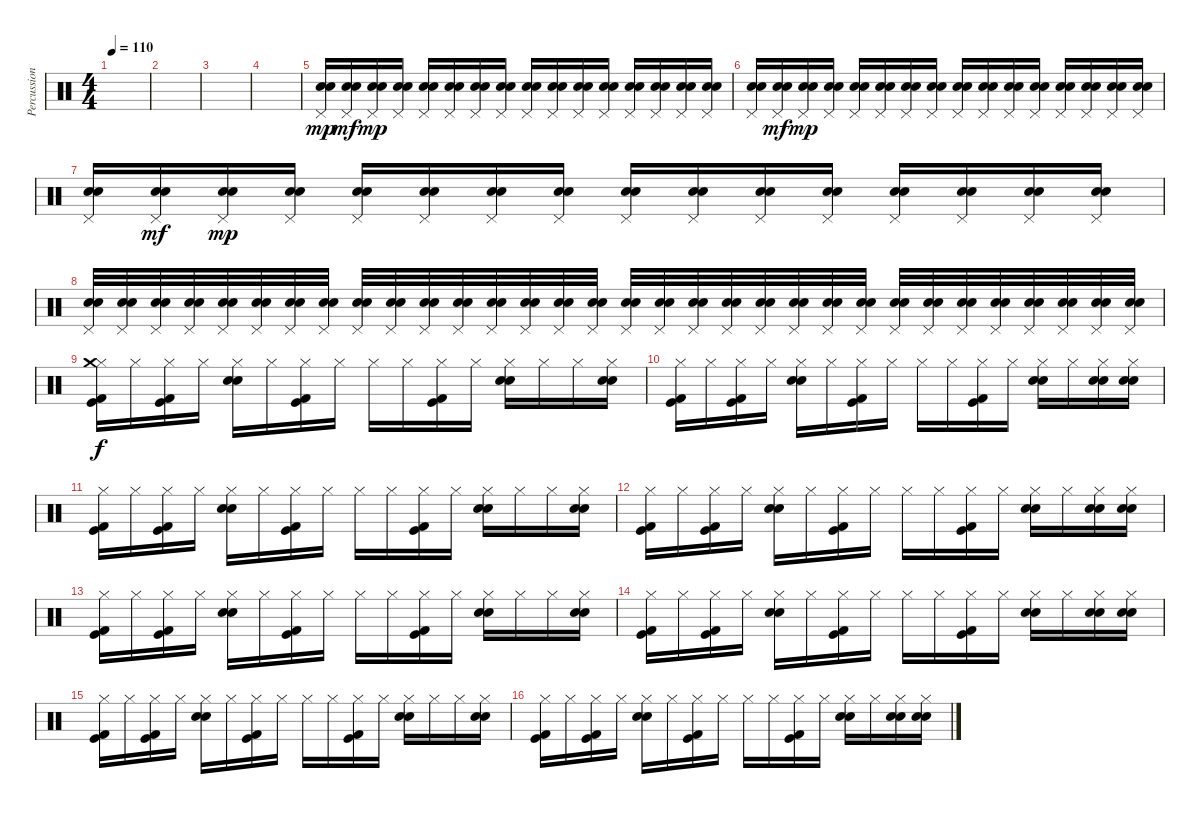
\track ("Percussion" "Percussion") {instrument percussion}
\staff {score}
\articulation defaults
\ts (4 4)
\tempo 110
\clef neutral
\ks c
|
|
|
|
("Pedal Hi-Hat (hit)" "Electric Snare (hit)" "Snare (hit) 2").16{dy mp volume 13} ("Pedal Hi-Hat (hit)" "Electric Snare (hit)" "Snare (hit) 2").16{dy mf} ("Pedal Hi-Hat (hit)" "Electric Snare (hit)" "Snare (hit) 2").16{dy mp} ("Pedal Hi-Hat (hit)" "Electric Snare (hit)" "Snare (hit) 2").16 ("Pedal Hi-Hat (hit)" "Electric Snare (hit)" "Snare (hit) 2").16 ("Pedal Hi-Hat (hit)" "Electric Snare (hit)" "Snare (hit) 2").16 ("Pedal Hi-Hat (hit)" "Electric Snare (hit)" "Snare (hit) 2").16 ("Pedal Hi-Hat (hit)" "Electric Snare (hit)" "Snare (hit) 2").16 ("Pedal Hi-Hat (hit)" "Electric Snare (hit)" "Snare (hit) 2").16 ("Pedal Hi-Hat (hit)" "Electric Snare (hit)" "Snare (hit) 2").16 ("Pedal Hi-Hat (hit)" "Electric Snare (hit)" "Snare (hit) 2").16 ("Pedal Hi-Hat (hit)" "Electric Snare (hit)" "Snare (hit) 2").16 ("Pedal Hi-Hat (hit)" "Electric Snare (hit)" "Snare (hit) 2").16 ("Pedal Hi-Hat (hit)" "Electric Snare (hit)" "Snare (hit) 2").16 ("Pedal Hi-Hat (hit)" "Electric Snare (hit)" "Snare (hit) 2").16 ("Pedal Hi-Hat (hit)" "Electric Snare (hit)" "Snare (hit) 2").16 |
("Pedal Hi-Hat (hit)" "Electric Snare (hit)" "Snare (hit) 2").16 ("Pedal Hi-Hat (hit)" "Electric Snare (hit)" "Snare (hit) 2").16{dy mf} ("Pedal Hi-Hat (hit)" "Electric Snare (hit)" "Snare (hit) 2").16{dy mp} ("Pedal Hi-Hat (hit)" "Electric Snare (hit)" "Snare (hit) 2").16 ("Pedal Hi-Hat (hit)" "Electric Snare (hit)" "Snare (hit) 2").16 ("Pedal Hi-Hat (hit)" "Electric Snare (hit)" "Snare (hit) 2").16 ("Pedal Hi-Hat (hit)" "Electric Snare (hit)" "Snare (hit) 2").16 ("Pedal Hi-Hat (hit)" "Electric Snare (hit)" "Snare (hit) 2").16 ("Pedal Hi-Hat (hit)" "Electric Snare (hit)" "Snare (hit) 2").16 ("Pedal Hi-Hat (hit)" "Electric Snare (hit)" "Snare (hit) 2").16 ("Pedal Hi-Hat (hit)" "Electric Snare (hit)" "Snare (hit) 2").16 ("Pedal Hi-Hat (hit)" "Electric Snare (hit)" "Snare (hit) 2").16 ("Pedal Hi-Hat (hit)" "Electric Snare (hit)" "Snare (hit) 2").16 ("Pedal Hi-Hat (hit)" "Electric Snare (hit)" "Snare (hit) 2").16 ("Pedal Hi-Hat (hit)" "Electric Snare (hit)" "Snare (hit) 2").16 ("Pedal Hi-Hat (hit)" "Electric Snare (hit)" "Snare (hit) 2").16 |
("Pedal Hi-Hat (hit)" "Electric Snare (hit)" "Snare (hit) 2").16{volume 16} ("Pedal Hi-Hat (hit)" "Electric Snare (hit)" "Snare (hit) 2").16{dy mf} ("Pedal Hi-Hat (hit)" "Electric Snare (hit)" "Snare (hit) 2").16{dy mp} ("Pedal Hi-Hat (hit)" "Electric Snare (hit)" "Snare (hit) 2").16 ("Pedal Hi-Hat (hit)" "Electric Snare (hit)" "Snare (hit) 2").16 ("Pedal Hi-Hat (hit)" "Electric Snare (hit)" "Snare (hit) 2").16 ("Pedal Hi-Hat (hit)" "Electric Snare (hit)" "Snare (hit) 2").16 ("Pedal Hi-Hat (hit)" "Electric Snare (hit)" "Snare (hit) 2").16 ("Pedal Hi-Hat (hit)" "Electric Snare (hit)" "Snare (hit) 2").16 ("Pedal Hi-Hat (hit)" "Electric Snare (hit)" "Snare (hit) 2").16 ("Pedal Hi-Hat (hit)" "Electric Snare (hit)" "Snare (hit) 2").16 ("Pedal Hi-Hat (hit)" "Electric Snare (hit)" "Snare (hit) 2").16 ("Pedal Hi-Hat (hit)" "Electric Snare (hit)" "Snare (hit) 2").16 ("Pedal Hi-Hat (hit)" "Electric Snare (hit)" "Snare (hit) 2").16 ("Pedal Hi-Hat (hit)" "Electric Snare (hit)" "Snare (hit) 2").16 ("Pedal Hi-Hat (hit)" "Electric Snare (hit)" "Snare (hit) 2").16 |
("Pedal Hi-Hat (hit)" "Electric Snare (hit)" "Snare (hit) 2").32 ("Pedal Hi-Hat (hit)" "Electric Snare (hit)" "Snare (hit) 2").32 ("Pedal Hi-Hat (hit)" "Electric Snare (hit)" "Snare (hit) 2").32 ("Pedal Hi-Hat (hit)" "Electric Snare (hit)" "Snare (hit) 2").32 ("Pedal Hi-Hat (hit)" "Electric Snare (hit)" "Snare (hit) 2").32 ("Pedal Hi-Hat (hit)" "Electric Snare (hit)" "Snare (hit) 2").32 ("Pedal Hi-Hat (hit)" "Electric Snare (hit)" "Snare (hit) 2").32 ("Pedal Hi-Hat (hit)" "Electric Snare (hit)" "Snare (hit) 2").32 ("Pedal Hi-Hat (hit)" "Electric Snare (hit)" "Snare (hit) 2").32 ("Pedal Hi-Hat (hit)" "Electric Snare (hit)" "Snare (hit) 2").32 ("Pedal Hi-Hat (hit)" "Electric Snare (hit)" "Snare (hit) 2").32 ("Pedal Hi-Hat (hit)" "Electric Snare (hit)" "Snare (hit) 2").32 ("Pedal Hi-Hat (hit)" "Electric Snare (hit)" "Snare (hit) 2").32 ("Pedal Hi-Hat (hit)" "Electric Snare (hit)" "Snare (hit) 2").32 ("Pedal Hi-Hat (hit)" "Electric Snare (hit)" "Snare (hit) 2").32 ("Pedal Hi-Hat (hit)" "Electric Snare (hit)" "Snare (hit) 2").32 ("Pedal Hi-Hat (hit)" "Electric Snare (hit)" "Snare (hit) 2").32 ("Pedal Hi-Hat (hit)" "Electric Snare (hit)" "Snare (hit) 2").32 ("Pedal Hi-Hat (hit)" "Electric Snare (hit)" "Snare (hit) 2").32 ("Pedal Hi-Hat (hit)" "Electric Snare (hit)" "Snare (hit) 2").32 ("Pedal Hi-Hat (hit)" "Electric Snare (hit)" "Snare (hit) 2").32 ("Pedal Hi-Hat (hit)" "Electric Snare (hit)" "Snare (hit) 2").32 ("Pedal Hi-Hat (hit)" "Electric Snare (hit)" "Snare (hit) 2").32 ("Pedal Hi-Hat (hit)" "Electric Snare (hit)" "Snare (hit) 2").32 ("Pedal Hi-Hat (hit)" "Electric Snare (hit)" "Snare (hit) 2").32 ("Pedal Hi-Hat (hit)" "Electric Snare (hit)" "Snare (hit) 2").32 ("Pedal Hi-Hat (hit)" "Electric Snare (hit)" "Snare (hit) 2").32 ("Pedal Hi-Hat (hit)" "Electric Snare (hit)" "Snare (hit) 2").32 ("Pedal Hi-Hat (hit)" "Electric Snare (hit)" "Snare (hit) 2").32 ("Pedal Hi-Hat (hit)" "Electric Snare (hit)" "Snare (hit) 2").32 ("Pedal Hi-Hat (hit)" "Electric Snare (hit)" "Snare (hit) 2").32 ("Pedal Hi-Hat (hit)" "Electric Snare (hit)" "Snare (hit) 2").32 |
("Hi-Hat (closed)" "Crash medium (hit)" "Kick (hit) 2" "Kick (hit)").16{dy f} "Hi-Hat (closed)".16 ("Hi-Hat (closed)" "Kick (hit) 2" "Kick (hit)").16 "Hi-Hat (closed)".16 ("Hi-Hat (closed)" "Electric Snare (hit)" "Snare (hit) 2").16 "Hi-Hat (closed)".16 ("Hi-Hat (closed)" "Kick (hit) 2" "Kick (hit)").16 "Hi-Hat (closed)".16 "Hi-Hat (closed)".16 "Hi-Hat (closed)".16 ("Hi-Hat (closed)" "Kick (hit) 2" "Kick (hit)").16 "Hi-Hat (closed)".16 ("Hi-Hat (closed)" "Electric Snare (hit)" "Snare (hit) 2").16 "Hi-Hat (closed)".16 "Hi-Hat (closed)".16 ("Hi-Hat (closed)" "Electric Snare (hit)" "Snare (hit) 2").16 |
("Hi-Hat (closed)" "Kick (hit) 2" "Kick (hit)").16 "Hi-Hat (closed)".16 ("Hi-Hat (closed)" "Kick (hit) 2" "Kick (hit)").16 "Hi-Hat (closed)".16 ("Hi-Hat (closed)" "Electric Snare (hit)" "Snare (hit) 2").16 "Hi-Hat (closed)".16 ("Hi-Hat (closed)" "Kick (hit) 2" "Kick (hit)").16 "Hi-Hat (closed)".16 "Hi-Hat (closed)".16 "Hi-Hat (closed)".16 ("Hi-Hat (closed)" "Kick (hit) 2" "Kick (hit)").16 "Hi-Hat (closed)".16 ("Hi-Hat (closed)" "Electric Snare (hit)" "Snare (hit) 2").16 "Hi-Hat (closed)".16 ("Hi-Hat (closed)" "Electric Snare (hit)" "Snare (hit) 2").16 ("Hi-Hat (closed)" "Electric Snare (hit)" "Snare (hit) 2").16 |
("Hi-Hat (closed)" "Kick (hit) 2" "Kick (hit)").16 "Hi-Hat (closed)".16 ("Hi-Hat (closed)" "Kick (hit) 2" "Kick (hit)").16 "Hi-Hat (closed)".16 ("Hi-Hat (closed)" "Electric Snare (hit)" "Snare (hit) 2").16 "Hi-Hat (closed)".16 ("Hi-Hat (closed)" "Kick (hit) 2" "Kick (hit)").16 "Hi-Hat (closed)".16 "Hi-Hat (closed)".16 "Hi-Hat (closed)".16 ("Hi-Hat (closed)" "Kick (hit) 2" "Kick (hit)").16 "Hi-Hat (closed)".16 ("Hi-Hat (closed)" "Electric Snare (hit)" "Snare (hit) 2").16 "Hi-Hat (closed)".16 "Hi-Hat (closed)".16 ("Hi-Hat (closed)" "Electric Snare (hit)" "Snare (hit) 2").16 |
("Hi-Hat (closed)" "Kick (hit) 2" "Kick (hit)").16 "Hi-Hat (closed)".16 ("Hi-Hat (closed)" "Kick (hit) 2" "Kick (hit)").16 "Hi-Hat (closed)".16 ("Hi-Hat (closed)" "Electric Snare (hit)" "Snare (hit) 2").16 "Hi-Hat (closed)".16 ("Hi-Hat (closed)" "Kick (hit) 2" "Kick (hit)").16 "Hi-Hat (closed)".16 "Hi-Hat (closed)".16 "Hi-Hat (closed)".16 ("Hi-Hat (closed)" "Kick (hit) 2" "Kick (hit)").16 "Hi-Hat (closed)".16 ("Hi-Hat (closed)" "Electric Snare (hit)" "Snare (hit) 2").16 "Hi-Hat (closed)".16 ("Hi-Hat (closed)" "Electric Snare (hit)" "Snare (hit) 2").16 ("Hi-Hat (closed)" "Electric Snare (hit)" "Snare (hit) 2").16 |
("Hi-Hat (closed)" "Kick (hit) 2" "Kick (hit)").16 "Hi-Hat (closed)".16 ("Hi-Hat (closed)" "Kick (hit) 2" "Kick (hit)").16 "Hi-Hat (closed)".16 ("Hi-Hat (closed)" "Electric Snare (hit)" "Snare (hit) 2").16 "Hi-Hat (closed)".16 ("Hi-Hat (closed)" "Kick (hit) 2" "Kick (hit)").16 "Hi-Hat (closed)".16 "Hi-Hat (closed)".16 "Hi-Hat (closed)".16 ("Hi-Hat (closed)" "Kick (hit) 2" "Kick (hit)").16 "Hi-Hat (closed)".16 ("Hi-Hat (closed)" "Electric Snare (hit)" "Snare (hit) 2").16 "Hi-Hat (closed)".16 "Hi-Hat (closed)".16 ("Hi-Hat (closed)" "Electric Snare (hit)" "Snare (hit) 2").16 |
("Hi-Hat (closed)" "Kick (hit) 2" "Kick (hit)").16 "Hi-Hat (closed)".16 ("Hi-Hat (closed)" "Kick (hit) 2" "Kick (hit)").16 "Hi-Hat (closed)".16 ("Hi-Hat (closed)" "Electric Snare (hit)" "Snare (hit) 2").16 "Hi-Hat (closed)".16 ("Hi-Hat (closed)" "Kick (hit) 2" "Kick (hit)").16 "Hi-Hat (closed)".16 "Hi-Hat (closed)".16 "Hi-Hat (closed)".16 ("Hi-Hat (closed)" "Kick (hit) 2" "Kick (hit)").16 "Hi-Hat (closed)".16 ("Hi-Hat (closed)" "Electric Snare (hit)" "Snare (hit) 2").16 "Hi-Hat (closed)".16 ("Hi-Hat (closed)" "Electric Snare (hit)" "Snare (hit) 2").16 ("Hi-Hat (closed)" "Electric Snare (hit)" "Snare (hit) 2").16 |
("Hi-Hat (closed)" "Kick (hit) 2" "Kick (hit)").16 "Hi-Hat (closed)".16 ("Hi-Hat (closed)" "Kick (hit) 2" "Kick (hit)").16 "Hi-Hat (closed)".16 ("Hi-Hat (closed)" "Electric Snare (hit)" "Snare (hit) 2").16 "Hi-Hat (closed)".16 ("Hi-Hat (closed)" "Kick (hit) 2" "Kick (hit)").16 "Hi-Hat (closed)".16 "Hi-Hat (closed)".16 "Hi-Hat (closed)".16 ("Hi-Hat (closed)" "Kick (hit) 2" "Kick (hit)").16 "Hi-Hat (closed)".16 ("Hi-Hat (closed)" "Electric Snare (hit)" "Snare (hit) 2").16 "Hi-Hat (closed)".16 "Hi-Hat (closed)".16 ("Hi-Hat (closed)" "Electric Snare (hit)" "Snare (hit) 2").16 |
("Hi-Hat (closed)" "Kick (hit) 2" "Kick (hit)").16 "Hi-Hat (closed)".16 ("Hi-Hat (closed)" "Kick (hit) 2" "Kick (hit)").16 "Hi-Hat (closed)".16 ("Hi-Hat (closed)" "Electric Snare (hit)" "Snare (hit) 2").16 "Hi-Hat (closed)".16 ("Hi-Hat (closed)" "Kick (hit) 2" "Kick (hit)").16 "Hi-Hat (closed)".16 "Hi-Hat (closed)".16 "Hi-Hat (closed)".16 ("Hi-Hat (closed)" "Kick (hit) 2" "Kick (hit)").16 "Hi-Hat (closed)".16 ("Hi-Hat (closed)" "Electric Snare (hit)" "Snare (hit) 2").16 "Hi-Hat (closed)".16 ("Hi-Hat (closed)" "Electric Snare (hit)" "Snare (hit) 2").16 ("Hi-Hat (closed)" "Electric Snare (hit)" "Snare (hit) 2").16
